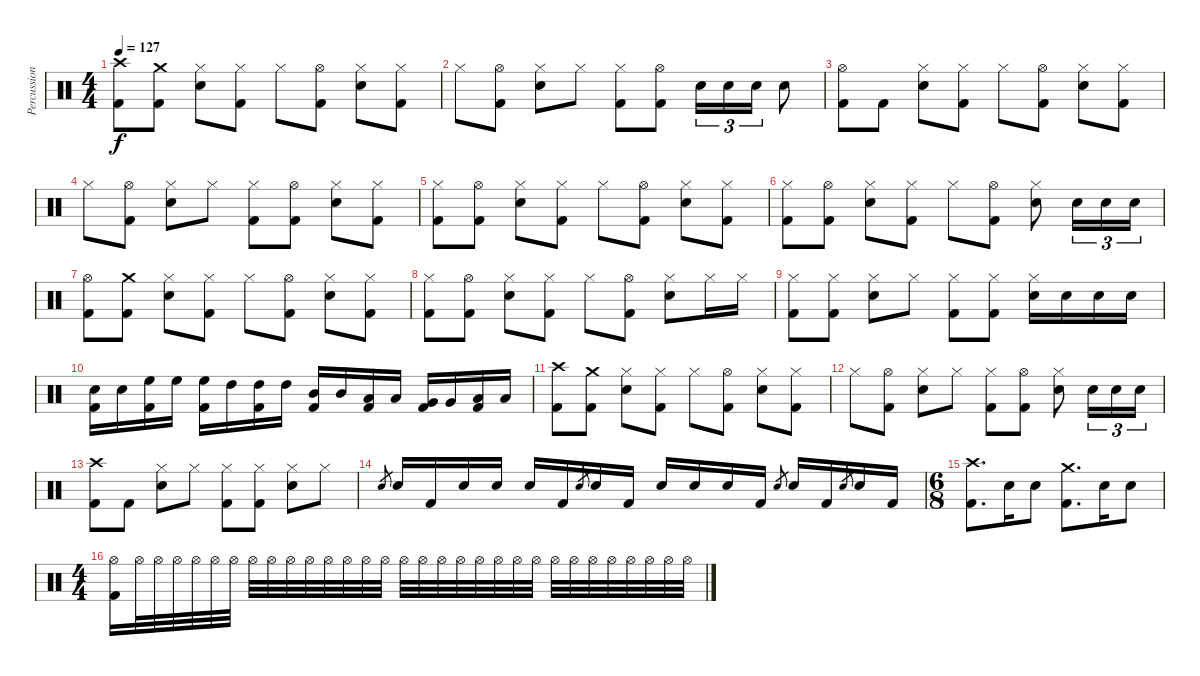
\track ("Percussion" "Percussion") {instrument percussion}
\staff {score}
\articulation defaults
\ts (4 4)
\tempo 127
\clef neutral
\ks c
("Kick (hit) 2" "Crash high (hit)").8{dy f} ("Kick (hit) 2" "Crash medium (hit)").8 ("Snare (hit) 2" "Hi-Hat (closed)").8 ("Kick (hit) 2" "Hi-Hat (closed)").8 "Hi-Hat (closed)".8 ("Kick (hit) 2" "Hi-Hat (open)").8 ("Snare (hit) 2" "Hi-Hat (closed)").8 ("Kick (hit) 2" "Hi-Hat (closed)").8 |
"Hi-Hat (closed)".8 ("Kick (hit) 2" "Hi-Hat (open)").8 ("Snare (hit) 2" "Hi-Hat (closed)").8 "Hi-Hat (closed)".8 ("Kick (hit) 2" "Hi-Hat (closed)").8 ("Kick (hit) 2" "Hi-Hat (open)").8 "Snare (hit) 2".16{tu (3 2)} "Snare (hit) 2".16{tu (3 2)} "Snare (hit) 2".16{tu (3 2)} "Snare (hit) 2".8 |
("Kick (hit) 2" "Hi-Hat (open)").8 "Kick (hit) 2".8 ("Snare (hit) 2" "Hi-Hat (closed)").8 ("Kick (hit) 2" "Hi-Hat (closed)").8 "Hi-Hat (closed)".8 ("Kick (hit) 2" "Hi-Hat (open)").8 ("Snare (hit) 2" "Hi-Hat (closed)").8 ("Kick (hit) 2" "Hi-Hat (closed)").8 |
"Hi-Hat (closed)".8 ("Kick (hit) 2" "Hi-Hat (open)").8 ("Snare (hit) 2" "Hi-Hat (closed)").8 "Hi-Hat (closed)".8 ("Kick (hit) 2" "Hi-Hat (closed)").8 ("Kick (hit) 2" "Hi-Hat (open)").8 ("Snare (hit) 2" "Hi-Hat (closed)").8 ("Kick (hit) 2" "Hi-Hat (closed)").8 |
("Kick (hit) 2" "Hi-Hat (closed)").8 ("Kick (hit) 2" "Hi-Hat (open)").8 ("Snare (hit) 2" "Hi-Hat (closed)").8 ("Kick (hit) 2" "Hi-Hat (closed)").8 "Hi-Hat (closed)".8 ("Kick (hit) 2" "Hi-Hat (open)").8 ("Snare (hit) 2" "Hi-Hat (closed)").8 ("Kick (hit) 2" "Hi-Hat (closed)").8 |
("Kick (hit) 2" "Hi-Hat (closed)").8 ("Kick (hit) 2" "Hi-Hat (open)").8 ("Snare (hit) 2" "Hi-Hat (closed)").8 ("Kick (hit) 2" "Hi-Hat (closed)").8 "Hi-Hat (closed)".8 ("Kick (hit) 2" "Hi-Hat (open)").8 ("Snare (hit) 2" "Hi-Hat (closed)").8 "Snare (hit) 2".16{tu (3 2)} "Snare (hit) 2".16{tu (3 2)} "Snare (hit) 2".16{tu (3 2)} |
("Kick (hit) 2" "Hi-Hat (open)").8 ("Kick (hit) 2" "Crash medium (hit)").8 ("Snare (hit) 2" "Hi-Hat (closed)").8 ("Kick (hit) 2" "Hi-Hat (closed)").8 "Hi-Hat (closed)".8 ("Kick (hit) 2" "Hi-Hat (open)").8 ("Snare (hit) 2" "Hi-Hat (closed)").8 ("Kick (hit) 2" "Hi-Hat (closed)").8 |
("Kick (hit) 2" "Hi-Hat (closed)").8 ("Kick (hit) 2" "Hi-Hat (open)").8 ("Snare (hit) 2" "Hi-Hat (closed)").8 ("Kick (hit) 2" "Hi-Hat (closed)").8 "Hi-Hat (closed)".8 ("Kick (hit) 2" "Hi-Hat (open)").8 ("Snare (hit) 2" "Hi-Hat (closed)").8 "Hi-Hat (closed)".16 "Hi-Hat (closed)".16 |
("Kick (hit) 2" "Hi-Hat (closed)").8 ("Kick (hit) 2" "Hi-Hat (closed)").8 ("Snare (hit) 2" "Hi-Hat (closed)").8 "Hi-Hat (closed)".8 ("Kick (hit) 2" "Hi-Hat (closed)").8 ("Kick (hit) 2" "Hi-Hat (closed)").8 ("Snare (hit) 2" "Hi-Hat (closed)").16 "Snare (hit) 2".16 "Snare (hit) 2".16 "Snare (hit) 2".16 |
("Kick (hit) 2" "Snare (hit) 2").16 "Snare (hit) 2".16 ("Kick (hit) 2" "High Floor Tom (hit)").16 "High Floor Tom (hit)".16 ("Kick (hit) 2" "High Floor Tom (hit)").16 "High Tom (hit)".16 ("Kick (hit) 2" "High Tom (hit)").16 "High Tom (hit)".16 ("Kick (hit) 2" "Mid Tom (hit)").16 "Mid Tom (hit)".16 ("Kick (hit) 2" "Low Tom (hit)").16 "Low Tom (hit)".16 ("Kick (hit) 2" "Very Low Tom (hit)").16 "Very Low Tom (hit)".16 ("Kick (hit) 2" "Low Floor Tom (hit)").16 "Low Floor Tom (hit)".16 |
("Kick (hit) 2" "Crash high (hit)").8 ("Kick (hit) 2" "Crash medium (hit)").8 ("Snare (hit) 2" "Hi-Hat (closed)").8 ("Kick (hit) 2" "Hi-Hat (closed)").8 "Hi-Hat (closed)".8 ("Kick (hit) 2" "Hi-Hat (open)").8 ("Snare (hit) 2" "Hi-Hat (closed)").8 ("Kick (hit) 2" "Hi-Hat (closed)").8 |
"Hi-Hat (closed)".8 ("Kick (hit) 2" "Hi-Hat (open)").8 ("Snare (hit) 2" "Hi-Hat (closed)").8 "Hi-Hat (closed)".8 ("Kick (hit) 2" "Hi-Hat (closed)").8 ("Kick (hit) 2" "Hi-Hat (open)").8 ("Snare (hit) 2" "Hi-Hat (closed)").8 "Snare (hit) 2".16{tu (3 2)} "Snare (hit) 2".16{tu (3 2)} "Snare (hit) 2".16{tu (3 2)} |
("Kick (hit) 2" "Crash high (hit)").8 "Kick (hit) 2".8 ("Snare (hit) 2" "Hi-Hat (closed)").8 "Hi-Hat (closed)".8 ("Kick (hit) 2" "Hi-Hat (closed)").8 ("Kick (hit) 2" "Hi-Hat (closed)").8 ("Snare (hit) 2" "Hi-Hat (closed)").8 "Hi-Hat (closed)".8 |
"Snare (hit) 2".8{gr} "Snare (hit) 2".16 "Kick (hit) 2".16 "Snare (hit) 2".16 "Snare (hit) 2".16 "Snare (hit) 2".16 "Kick (hit) 2".16 "Snare (hit) 2".8{gr} "Snare (hit) 2".16 "Kick (hit) 2".16 "Snare (hit) 2".16 "Snare (hit) 2".16 "Snare (hit) 2".16 "Kick (hit) 2".16 "Snare (hit) 2".8{gr} "Snare (hit) 2".16 "Kick (hit) 2".16 "Snare (hit) 2".8{gr} "Snare (hit) 2".16 "Kick (hit) 2".16 |
\ts (6 8)
("Kick (hit) 2" "Crash high (hit)").8{d} "Snare (hit) 2".16 "Snare (hit) 2".8 ("Kick (hit) 2" "Crash medium (hit)").8{d} "Snare (hit) 2".16 "Snare (hit) 2".8 |
\ts (4 4)
("Kick (hit) 2" "Hi-Hat (open)").16 "Hi-Hat (open)".32 "Hi-Hat (open)".32 "Hi-Hat (open)".32 "Hi-Hat (open)".32 "Hi-Hat (open)".32 "Hi-Hat (open)".32 "Hi-Hat (open)".32 "Hi-Hat (open)".32 "Hi-Hat (open)".32 "Hi-Hat (open)".32 "Hi-Hat (open)".32 "Hi-Hat (open)".32 "Hi-Hat (open)".32 "Hi-Hat (open)".32 "Hi-Hat (open)".32 "Hi-Hat (open)".32 "Hi-Hat (open)".32 "Hi-Hat (open)".32 "Hi-Hat (open)".32 "Hi-Hat (open)".32 "Hi-Hat (open)".32 "Hi-Hat (open)".32 "Hi-Hat (open)".32 "Hi-Hat (open)".32 "Hi-Hat (open)".32 "Hi-Hat (open)".32 "Hi-Hat (open)".32 "Hi-Hat (open)".32 "Hi-Hat (open)".32 "Hi-Hat (open)".32
